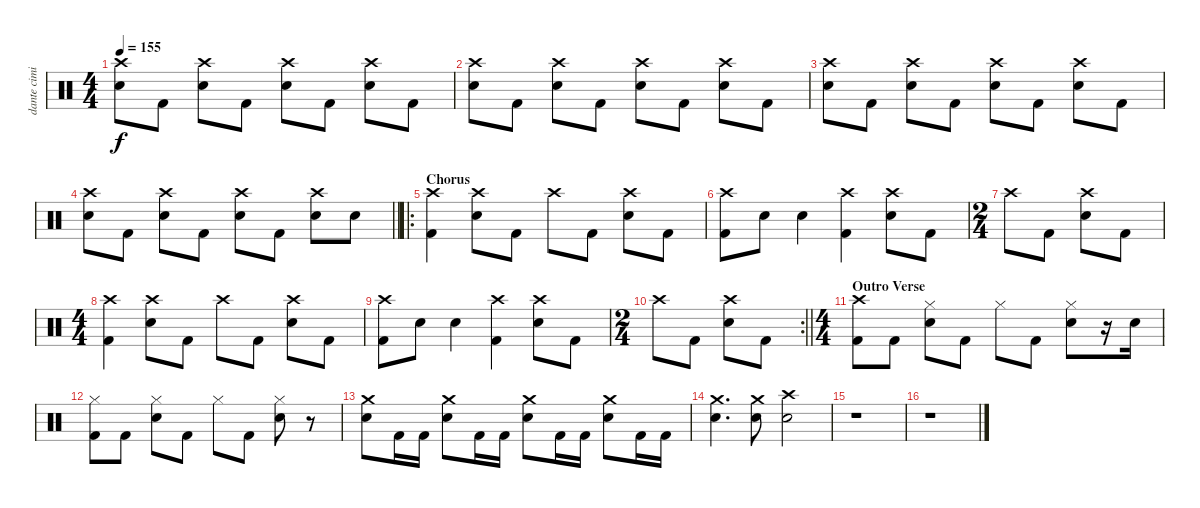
\track ("dante cimino" "dante cimi") {instrument percussion}
\staff {score}
\articulation defaults
\ts (4 4)
\tempo 155
\clef neutral
\ks c
("Crash high (hit)" "Electric Snare (hit)").8{dy f} "Kick (hit) 2".8 ("Crash high (hit)" "Electric Snare (hit)").8 "Kick (hit) 2".8 ("Crash high (hit)" "Electric Snare (hit)").8 "Kick (hit) 2".8 ("Crash high (hit)" "Electric Snare (hit)").8 "Kick (hit) 2".8 |
("Crash high (hit)" "Electric Snare (hit)").8 "Kick (hit) 2".8 ("Crash high (hit)" "Electric Snare (hit)").8 "Kick (hit) 2".8 ("Crash high (hit)" "Electric Snare (hit)").8 "Kick (hit) 2".8 ("Crash high (hit)" "Electric Snare (hit)").8 "Kick (hit) 2".8 |
("Crash high (hit)" "Electric Snare (hit)").8 "Kick (hit) 2".8 ("Crash high (hit)" "Electric Snare (hit)").8 "Kick (hit) 2".8 ("Crash high (hit)" "Electric Snare (hit)").8 "Kick (hit) 2".8 ("Crash high (hit)" "Electric Snare (hit)").8 "Kick (hit) 2".8 |
\barLineRight lightlight
("Crash high (hit)" "Electric Snare (hit)").8 "Kick (hit) 2".8 ("Crash high (hit)" "Electric Snare (hit)").8 "Kick (hit) 2".8 ("Crash high (hit)" "Electric Snare (hit)").8 "Kick (hit) 2".8 ("Crash high (hit)" "Electric Snare (hit)").8 "Electric Snare (hit)".8 |
\ro
\section ("" "Chorus")
("Crash high (hit)" "Kick (hit) 2").4 ("Crash high (hit)" "Electric Snare (hit)").8 "Kick (hit) 2".8 "Crash high (hit)".8 "Kick (hit) 2".8 ("Crash high (hit)" "Electric Snare (hit)").8 "Kick (hit) 2".8 |
("Crash high (hit)" "Kick (hit) 2").8 "Electric Snare (hit)".8 "Electric Snare (hit)".4 ("Crash high (hit)" "Kick (hit) 2").4 ("Crash high (hit)" "Electric Snare (hit)").8 "Kick (hit) 2".8 |
\ts (2 4)
"Crash high (hit)".8 "Kick (hit) 2".8 ("Crash high (hit)" "Electric Snare (hit)").8 "Kick (hit) 2".8 |
\ts (4 4)
("Crash high (hit)" "Kick (hit) 2").4 ("Crash high (hit)" "Electric Snare (hit)").8 "Kick (hit) 2".8 "Crash high (hit)".8 "Kick (hit) 2".8 ("Crash high (hit)" "Electric Snare (hit)").8 "Kick (hit) 2".8 |
("Crash high (hit)" "Kick (hit) 2").8 "Electric Snare (hit)".8 "Electric Snare (hit)".4 ("Crash high (hit)" "Kick (hit) 2").4 ("Crash high (hit)" "Electric Snare (hit)").8 "Kick (hit) 2".8 |
\rc 2
\ts (2 4)
\barLineRight lightlight "Crash high (hit)".8 "Kick (hit) 2".8
("Crash high (hit)" "Electric Snare (hit)").8 "Kick (hit) 2".8 |
\ts (4 4)
\section ("" "Outro Verse")
("Crash high (hit)" "Kick (hit) 2").8 "Kick (hit) 2".8 ("Hi-Hat (closed)" "Electric Snare (hit)").8 "Kick (hit) 2".8 "Hi-Hat (closed)".8 "Kick (hit) 2".8 ("Hi-Hat (closed)" "Electric Snare (hit)").8 r.16 "Electric Snare (hit)".16 |
("Hi-Hat (closed)" "Kick (hit) 2").8 "Kick (hit) 2".8 ("Hi-Hat (closed)" "Electric Snare (hit)").8 "Kick (hit) 2".8 "Hi-Hat (closed)".8 "Kick (hit) 2".8 ("Hi-Hat (closed)" "Electric Snare (hit)").8 r.8 |
("Crash medium (hit)" "Electric Snare (hit)").8 "Kick (hit) 2".16 "Kick (hit) 2".16 ("Crash medium (hit)" "Electric Snare (hit)").8 "Kick (hit) 2".16 "Kick (hit) 2".16 ("Crash medium (hit)" "Electric Snare (hit)").8 "Kick (hit) 2".16 "Kick (hit) 2".16 ("Crash medium (hit)" "Electric Snare (hit)").8 "Kick (hit) 2".16 "Kick (hit) 2".16 |
("Crash medium (hit)" "Electric Snare (hit)").4{d} ("Crash medium (hit)" "Electric Snare (hit)").8 ("Crash high (hit)" "Electric Snare (hit)").2 |
r.1 |
r.1
